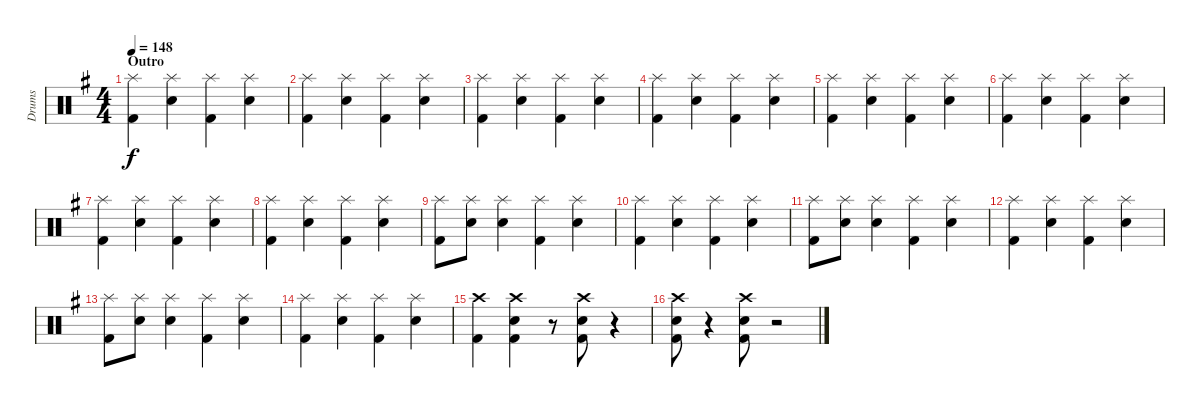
\track ("Drums" "Drums") {instrument percussion}
\staff {score}
\articulation defaults
\ts (4 4)
\section ("" "Outro")
\tempo 148
\clef neutral
\ks g
("Kick (hit) 2" "Splash (hit)").4{dy f} ("Snare (hit) 2" "Splash (hit)").4 ("Kick (hit) 2" "Splash (hit)").4 ("Snare (hit) 2" "Splash (hit)").4 |
("Kick (hit) 2" "Splash (hit)").4 ("Snare (hit) 2" "Splash (hit)").4 ("Kick (hit) 2" "Splash (hit)").4 ("Snare (hit) 2" "Splash (hit)").4 |
("Kick (hit) 2" "Splash (hit)").4 ("Snare (hit) 2" "Splash (hit)").4 ("Kick (hit) 2" "Splash (hit)").4 ("Snare (hit) 2" "Splash (hit)").4 |
("Kick (hit) 2" "Splash (hit)").4 ("Snare (hit) 2" "Splash (hit)").4 ("Kick (hit) 2" "Splash (hit)").4 ("Snare (hit) 2" "Splash (hit)").4 |
("Kick (hit) 2" "Splash (hit)").4 ("Snare (hit) 2" "Splash (hit)").4 ("Kick (hit) 2" "Splash (hit)").4 ("Snare (hit) 2" "Splash (hit)").4 |
("Kick (hit) 2" "Splash (hit)").4 ("Snare (hit) 2" "Splash (hit)").4 ("Kick (hit) 2" "Splash (hit)").4 ("Snare (hit) 2" "Splash (hit)").4 |
("Kick (hit) 2" "Splash (hit)").4 ("Snare (hit) 2" "Splash (hit)").4 ("Kick (hit) 2" "Splash (hit)").4 ("Snare (hit) 2" "Splash (hit)").4 |
("Kick (hit) 2" "Splash (hit)").4 ("Snare (hit) 2" "Splash (hit)").4 ("Kick (hit) 2" "Splash (hit)").4 ("Snare (hit) 2" "Splash (hit)").4 |
("Kick (hit) 2" "Splash (hit)").8 ("Snare (hit) 2" "Splash (hit)").8 ("Snare (hit) 2" "Splash (hit)").4 ("Kick (hit) 2" "Splash (hit)").4 ("Snare (hit) 2" "Splash (hit)").4 |
("Kick (hit) 2" "Splash (hit)").4 ("Snare (hit) 2" "Splash (hit)").4 ("Kick (hit) 2" "Splash (hit)").4 ("Snare (hit) 2" "Splash (hit)").4 |
("Kick (hit) 2" "Splash (hit)").8 ("Snare (hit) 2" "Splash (hit)").8 ("Snare (hit) 2" "Splash (hit)").4 ("Kick (hit) 2" "Splash (hit)").4 ("Snare (hit) 2" "Splash (hit)").4 |
("Kick (hit) 2" "Splash (hit)").4 ("Snare (hit) 2" "Splash (hit)").4 ("Kick (hit) 2" "Splash (hit)").4 ("Snare (hit) 2" "Splash (hit)").4 |
("Kick (hit) 2" "Splash (hit)").8 ("Snare (hit) 2" "Splash (hit)").8 ("Snare (hit) 2" "Splash (hit)").4 ("Kick (hit) 2" "Splash (hit)").4 ("Snare (hit) 2" "Splash (hit)").4 |
("Kick (hit) 2" "Splash (hit)").4 ("Snare (hit) 2" "Splash (hit)").4 ("Kick (hit) 2" "Splash (hit)").4 ("Snare (hit) 2" "Splash (hit)").4 |
("Kick (hit) 2" "Crash high (hit)").4 ("Snare (hit) 2" "Crash high (hit)" "Kick (hit) 2").4 r.8 ("Snare (hit) 2" "Crash high (hit)" "Kick (hit) 2").8 r.4 |
("Snare (hit) 2" "Crash high (hit)" "Kick (hit) 2").8 r.4 ("Snare (hit) 2" "Crash high (hit)" "Kick (hit) 2").8 r.2
